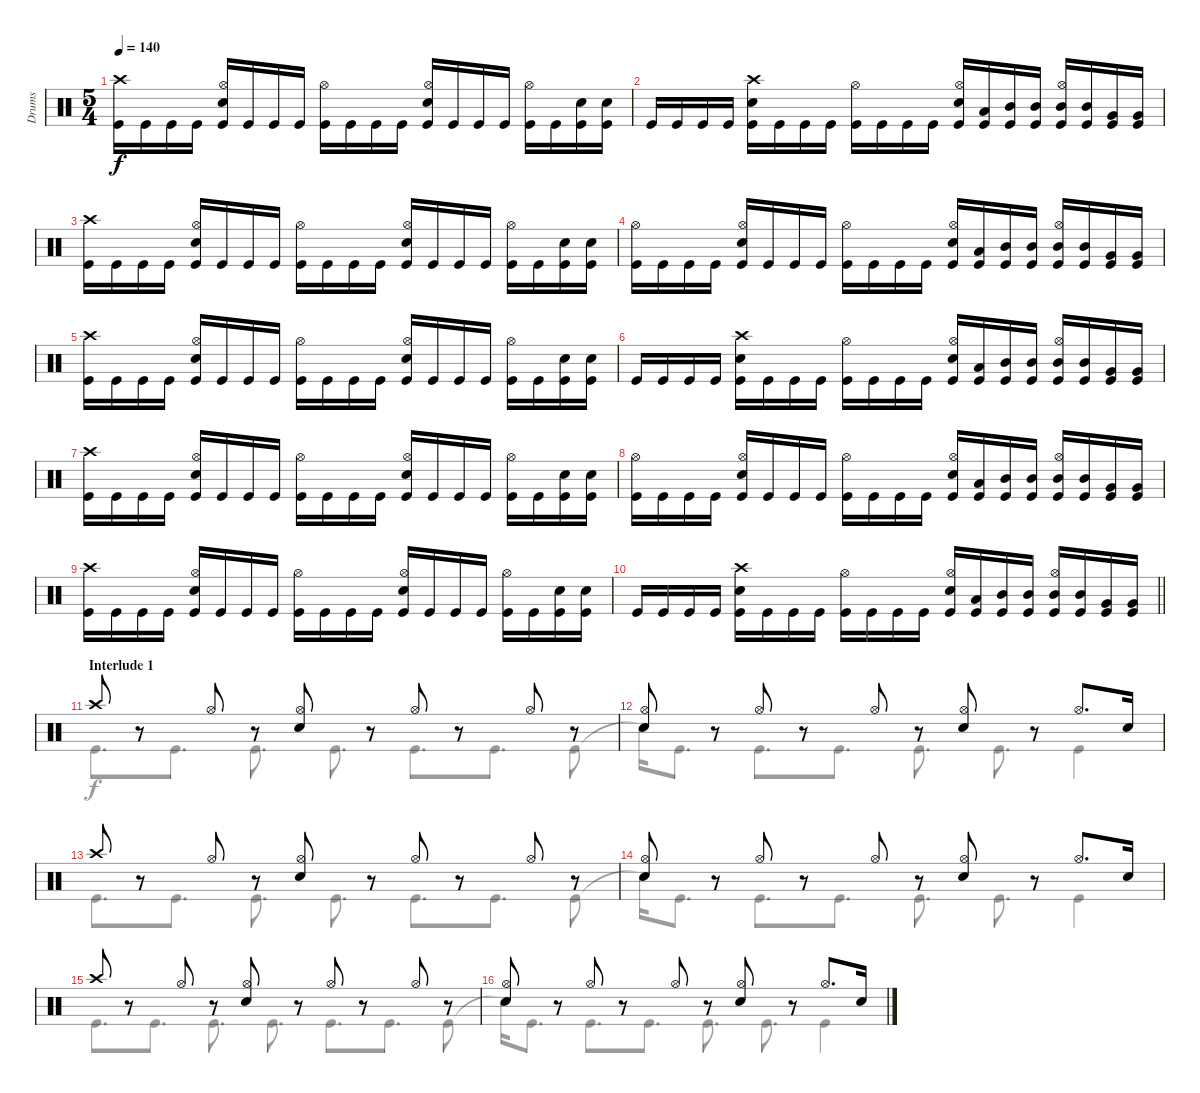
\track ("Drums" "Drums") {instrument percussion}
\staff {score}
\articulation defaults
\voice
\ts (5 4)
\tempo 140
\clef neutral
\ks c
("Crash high (hit)" "Kick (hit)").16{dy f} "Kick (hit)".16 "Kick (hit)".16 "Kick (hit)".16 ("Hi-Hat (open)" "Snare (hit) 2" "Kick (hit)").16 "Kick (hit)".16 "Kick (hit)".16 "Kick (hit)".16 ("Hi-Hat (open)" "Kick (hit)").16 "Kick (hit)".16 "Kick (hit)".16 "Kick (hit)".16 ("Hi-Hat (open)" "Snare (hit) 2" "Kick (hit)").16 "Kick (hit)".16 "Kick (hit)".16 "Kick (hit)".16 ("Hi-Hat (open)" "Kick (hit)").16 "Kick (hit)".16 ("Snare (hit) 2" "Kick (hit)").16 ("Snare (hit) 2" "Kick (hit)").16 |
"Kick (hit)".16 "Kick (hit)".16 "Kick (hit)".16 "Kick (hit)".16 ("Crash high (hit)" "Snare (hit) 2" "Kick (hit)").16 "Kick (hit)".16 "Kick (hit)".16 "Kick (hit)".16 ("Hi-Hat (open)" "Kick (hit)").16 "Kick (hit)".16 "Kick (hit)".16 "Kick (hit)".16 ("Hi-Hat (open)" "Snare (hit) 2" "Kick (hit)").16 ("Low Tom (hit)" "Kick (hit)").16 ("Mid Tom (hit)" "Kick (hit)").16 ("Mid Tom (hit)" "Kick (hit)").16 ("Hi-Hat (open)" "Mid Tom (hit)" "Kick (hit)").16 ("Mid Tom (hit)" "Kick (hit)").16 ("Very Low Tom (hit)" "Kick (hit)").16 ("Very Low Tom (hit)" "Kick (hit)").16 |
("Crash high (hit)" "Kick (hit)").16 "Kick (hit)".16 "Kick (hit)".16 "Kick (hit)".16 ("Hi-Hat (open)" "Snare (hit) 2" "Kick (hit)").16 "Kick (hit)".16 "Kick (hit)".16 "Kick (hit)".16 ("Hi-Hat (open)" "Kick (hit)").16 "Kick (hit)".16 "Kick (hit)".16 "Kick (hit)".16 ("Hi-Hat (open)" "Snare (hit) 2" "Kick (hit)").16 "Kick (hit)".16 "Kick (hit)".16 "Kick (hit)".16 ("Hi-Hat (open)" "Kick (hit)").16 "Kick (hit)".16 ("Snare (hit) 2" "Kick (hit)").16 ("Snare (hit) 2" "Kick (hit)").16 |
("Hi-Hat (open)" "Kick (hit)").16 "Kick (hit)".16 "Kick (hit)".16 "Kick (hit)".16 ("Hi-Hat (open)" "Snare (hit) 2" "Kick (hit)").16 "Kick (hit)".16 "Kick (hit)".16 "Kick (hit)".16 ("Hi-Hat (open)" "Kick (hit)").16 "Kick (hit)".16 "Kick (hit)".16 "Kick (hit)".16 ("Hi-Hat (open)" "Snare (hit) 2" "Kick (hit)").16 ("Low Tom (hit)" "Kick (hit)").16 ("Mid Tom (hit)" "Kick (hit)").16 ("Mid Tom (hit)" "Kick (hit)").16 ("Hi-Hat (open)" "Mid Tom (hit)" "Kick (hit)").16 ("Mid Tom (hit)" "Kick (hit)").16 ("Very Low Tom (hit)" "Kick (hit)").16 ("Very Low Tom (hit)" "Kick (hit)").16 |
("Crash high (hit)" "Kick (hit)").16 "Kick (hit)".16 "Kick (hit)".16 "Kick (hit)".16 ("Hi-Hat (open)" "Snare (hit) 2" "Kick (hit)").16 "Kick (hit)".16 "Kick (hit)".16 "Kick (hit)".16 ("Hi-Hat (open)" "Kick (hit)").16 "Kick (hit)".16 "Kick (hit)".16 "Kick (hit)".16 ("Hi-Hat (open)" "Snare (hit) 2" "Kick (hit)").16 "Kick (hit)".16 "Kick (hit)".16 "Kick (hit)".16 ("Hi-Hat (open)" "Kick (hit)").16 "Kick (hit)".16 ("Snare (hit) 2" "Kick (hit)").16 ("Snare (hit) 2" "Kick (hit)").16 |
"Kick (hit)".16 "Kick (hit)".16 "Kick (hit)".16 "Kick (hit)".16 ("Crash high (hit)" "Snare (hit) 2" "Kick (hit)").16 "Kick (hit)".16 "Kick (hit)".16 "Kick (hit)".16 ("Hi-Hat (open)" "Kick (hit)").16 "Kick (hit)".16 "Kick (hit)".16 "Kick (hit)".16 ("Hi-Hat (open)" "Snare (hit) 2" "Kick (hit)").16 ("Low Tom (hit)" "Kick (hit)").16 ("Mid Tom (hit)" "Kick (hit)").16 ("Mid Tom (hit)" "Kick (hit)").16 ("Hi-Hat (open)" "Mid Tom (hit)" "Kick (hit)").16 ("Mid Tom (hit)" "Kick (hit)").16 ("Very Low Tom (hit)" "Kick (hit)").16 ("Very Low Tom (hit)" "Kick (hit)").16 |
("Crash high (hit)" "Kick (hit)").16 "Kick (hit)".16 "Kick (hit)".16 "Kick (hit)".16 ("Hi-Hat (open)" "Snare (hit) 2" "Kick (hit)").16 "Kick (hit)".16 "Kick (hit)".16 "Kick (hit)".16 ("Hi-Hat (open)" "Kick (hit)").16 "Kick (hit)".16 "Kick (hit)".16 "Kick (hit)".16 ("Hi-Hat (open)" "Snare (hit) 2" "Kick (hit)").16 "Kick (hit)".16 "Kick (hit)".16 "Kick (hit)".16 ("Hi-Hat (open)" "Kick (hit)").16 "Kick (hit)".16 ("Snare (hit) 2" "Kick (hit)").16 ("Snare (hit) 2" "Kick (hit)").16 |
("Hi-Hat (open)" "Kick (hit)").16 "Kick (hit)".16 "Kick (hit)".16 "Kick (hit)".16 ("Hi-Hat (open)" "Snare (hit) 2" "Kick (hit)").16 "Kick (hit)".16 "Kick (hit)".16 "Kick (hit)".16 ("Hi-Hat (open)" "Kick (hit)").16 "Kick (hit)".16 "Kick (hit)".16 "Kick (hit)".16 ("Hi-Hat (open)" "Snare (hit) 2" "Kick (hit)").16 ("Low Tom (hit)" "Kick (hit)").16 ("Mid Tom (hit)" "Kick (hit)").16 ("Mid Tom (hit)" "Kick (hit)").16 ("Hi-Hat (open)" "Mid Tom (hit)" "Kick (hit)").16 ("Mid Tom (hit)" "Kick (hit)").16 ("Very Low Tom (hit)" "Kick (hit)").16 ("Very Low Tom (hit)" "Kick (hit)").16 |
("Crash high (hit)" "Kick (hit)").16 "Kick (hit)".16 "Kick (hit)".16 "Kick (hit)".16 ("Hi-Hat (open)" "Snare (hit) 2" "Kick (hit)").16 "Kick (hit)".16 "Kick (hit)".16 "Kick (hit)".16 ("Hi-Hat (open)" "Kick (hit)").16 "Kick (hit)".16 "Kick (hit)".16 "Kick (hit)".16 ("Hi-Hat (open)" "Snare (hit) 2" "Kick (hit)").16 "Kick (hit)".16 "Kick (hit)".16 "Kick (hit)".16 ("Hi-Hat (open)" "Kick (hit)").16 "Kick (hit)".16 ("Snare (hit) 2" "Kick (hit)").16 ("Snare (hit) 2" "Kick (hit)").16 |
\barLineRight lightlight "Kick (hit)".16 "Kick (hit)".16 "Kick (hit)".16 "Kick (hit)".16
("Crash high (hit)" "Snare (hit) 2" "Kick (hit)").16 "Kick (hit)".16 "Kick (hit)".16 "Kick (hit)".16 ("Hi-Hat (open)" "Kick (hit)").16 "Kick (hit)".16 "Kick (hit)".16 "Kick (hit)".16 ("Hi-Hat (open)" "Snare (hit) 2" "Kick (hit)").16 ("Low Tom (hit)" "Kick (hit)").16 ("Mid Tom (hit)" "Kick (hit)").16 ("Mid Tom (hit)" "Kick (hit)").16 ("Hi-Hat (open)" "Mid Tom (hit)" "Kick (hit)").16 ("Mid Tom (hit)" "Kick (hit)").16 ("Very Low Tom (hit)" "Kick (hit)").16 ("Very Low Tom (hit)" "Kick (hit)").16 |
\section ("" "Interlude 1")
"Crash high (hit)".8 r.8 "Hi-Hat (open)".8 r.8 ("Hi-Hat (open)" "Snare (hit) 2").8 r.8 "Hi-Hat (open)".8 r.8 "Hi-Hat (open)".8 r.8 |
("Hi-Hat (open)" "Snare (hit) 2").8 r.8 "Hi-Hat (open)".8 r.8 "Hi-Hat (open)".8 r.8 ("Hi-Hat (open)" "Snare (hit) 2").8 r.8 "Hi-Hat (open)".8{d} "Snare (hit) 2".16 |
"Crash high (hit)".8 r.8 "Hi-Hat (open)".8 r.8 ("Hi-Hat (open)" "Snare (hit) 2").8 r.8 "Hi-Hat (open)".8 r.8 "Hi-Hat (open)".8 r.8 |
("Hi-Hat (open)" "Snare (hit) 2").8 r.8 "Hi-Hat (open)".8 r.8 "Hi-Hat (open)".8 r.8 ("Hi-Hat (open)" "Snare (hit) 2").8 r.8 "Hi-Hat (open)".8{d} "Snare (hit) 2".16 |
"Crash high (hit)".8 r.8 "Hi-Hat (open)".8 r.8 ("Hi-Hat (open)" "Snare (hit) 2").8 r.8 "Hi-Hat (open)".8 r.8 "Hi-Hat (open)".8 r.8 |
("Hi-Hat (open)" "Snare (hit) 2").8 r.8 "Hi-Hat (open)".8 r.8 "Hi-Hat (open)".8 r.8 ("Hi-Hat (open)" "Snare (hit) 2").8 r.8 "Hi-Hat (open)".8{d} "Snare (hit) 2".16
\voice
\clef neutral
\ottava regular
\simile none
\ks c
|
|
|
|
|
|
|
|
|
\barLineRight lightlight
|
"Kick (hit)".8{d} "Kick (hit)".8{d} "Kick (hit)".8{d} "Kick (hit)".8{d} "Kick (hit)".8{d} "Kick (hit)".8{d} "Kick (hit)".8 |
"Snare (hit)"{t}.16 "Kick (hit)".8{d} "Kick (hit)".8{d} "Kick (hit)".8{d} "Kick (hit)".8{d} "Kick (hit)".8{d} "Kick (hit)".4 |
"Kick (hit)".8{d} "Kick (hit)".8{d} "Kick (hit)".8{d} "Kick (hit)".8{d} "Kick (hit)".8{d} "Kick (hit)".8{d} "Kick (hit)".8 |
"Snare (hit)"{t}.16 "Kick (hit)".8{d} "Kick (hit)".8{d} "Kick (hit)".8{d} "Kick (hit)".8{d} "Kick (hit)".8{d} "Kick (hit)".4 |
"Kick (hit)".8{d} "Kick (hit)".8{d} "Kick (hit)".8{d} "Kick (hit)".8{d} "Kick (hit)".8{d} "Kick (hit)".8{d} "Kick (hit)".8 |
"Snare (hit)"{t}.16 "Kick (hit)".8{d} "Kick (hit)".8{d} "Kick (hit)".8{d} "Kick (hit)".8{d} "Kick (hit)".8{d} "Kick (hit)".4
